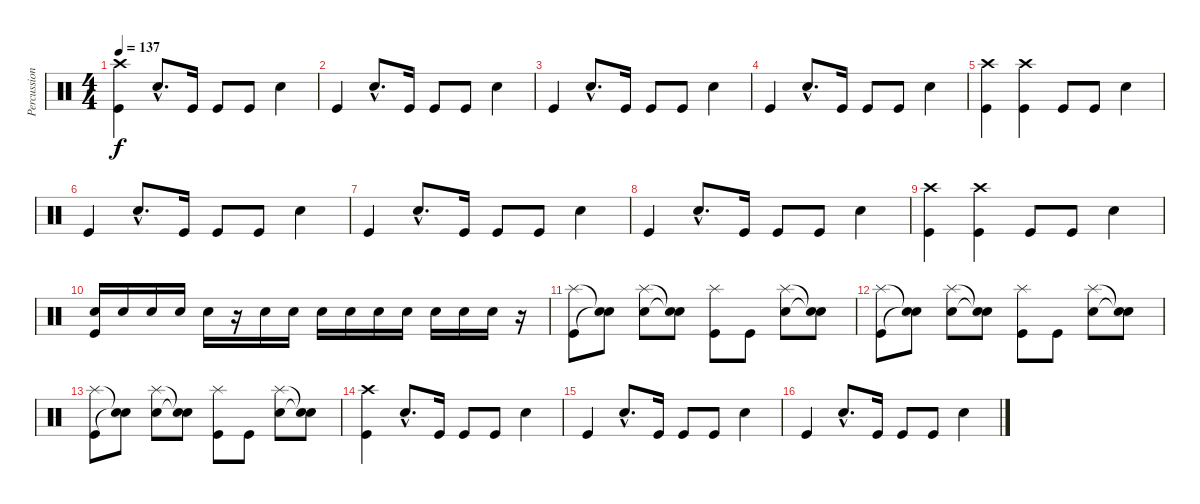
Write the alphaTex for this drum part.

\track ("Percussion" "Percussion") {instrument percussion}
\staff {score}
\articulation defaults
\ts (4 4)
\tempo 137
\clef neutral
\ks c
("Crash high (hit)" "Kick (hit)").4{dy f} "Snare (hit) 2"{hac}.8{d} "Kick (hit)".16 "Kick (hit)".8 "Kick (hit)".8 "Snare (hit) 2".4 |
"Kick (hit)".4 "Snare (hit) 2"{hac}.8{d} "Kick (hit)".16 "Kick (hit)".8 "Kick (hit)".8 "Snare (hit) 2".4 |
"Kick (hit)".4 "Snare (hit) 2"{hac}.8{d} "Kick (hit)".16 "Kick (hit)".8 "Kick (hit)".8 "Snare (hit) 2".4 |
"Kick (hit)".4 "Snare (hit) 2"{hac}.8{d} "Kick (hit)".16 "Kick (hit)".8 "Kick (hit)".8 "Snare (hit) 2".4 |
("Crash high (hit)" "Kick (hit)").4 ("Crash high (hit)" "Kick (hit)").4 "Kick (hit)".8 "Kick (hit)".8 "Snare (hit) 2".4 |
"Kick (hit)".4 "Snare (hit) 2"{hac}.8{d} "Kick (hit)".16 "Kick (hit)".8 "Kick (hit)".8 "Snare (hit) 2".4 |
"Kick (hit)".4 "Snare (hit) 2"{hac}.8{d} "Kick (hit)".16 "Kick (hit)".8 "Kick (hit)".8 "Snare (hit) 2".4 |
"Kick (hit)".4 "Snare (hit) 2"{hac}.8{d} "Kick (hit)".16 "Kick (hit)".8 "Kick (hit)".8 "Snare (hit) 2".4 |
("Crash high (hit)" "Kick (hit)").4 ("Crash high (hit)" "Kick (hit)").4 "Kick (hit)".8 "Kick (hit)".8 "Snare (hit) 2".4 |
("Snare (hit) 2" "Kick (hit)").16 "Snare (hit) 2".16 "Snare (hit) 2".16 "Snare (hit) 2".16 "Snare (hit) 2".16 r.16 "Snare (hit) 2".16 "Snare (hit) 2".16 "Snare (hit) 2".16 "Snare (hit) 2".16 "Snare (hit) 2".16 "Snare (hit) 2".16 "Snare (hit) 2".16 "Snare (hit) 2".16 "Snare (hit) 2".16 r.16 |
("Splash (hit)" "Kick (hit)").8 ("Snare (hit)"{t} "Snare (hit)"{t}).8 ("Splash (hit)" "Snare (hit) 2").8 ("Snare (hit)"{t} "Snare (hit)"{t}).8 ("Splash (hit)" "Kick (hit)").8 "Kick (hit)".8 ("Splash (hit)" "Snare (hit) 2").8 ("Snare (hit)"{t} "Snare (hit)"{t}).8 |
("Splash (hit)" "Kick (hit)").8 ("Snare (hit)"{t} "Snare (hit)"{t}).8 ("Splash (hit)" "Snare (hit) 2").8 ("Snare (hit)"{t} "Snare (hit)"{t}).8 ("Splash (hit)" "Kick (hit)").8 "Kick (hit)".8 ("Splash (hit)" "Snare (hit) 2").8 ("Snare (hit)"{t} "Snare (hit)"{t}).8 |
("Splash (hit)" "Kick (hit)").8 ("Snare (hit)"{t} "Snare (hit)"{t}).8 ("Splash (hit)" "Snare (hit) 2").8 ("Snare (hit)"{t} "Snare (hit)"{t}).8 ("Splash (hit)" "Kick (hit)").8 "Kick (hit)".8 ("Splash (hit)" "Snare (hit) 2").8 ("Snare (hit)"{t} "Snare (hit)"{t}).8 |
("Crash high (hit)" "Kick (hit)").4 "Snare (hit) 2"{hac}.8{d} "Kick (hit)".16 "Kick (hit)".8 "Kick (hit)".8 "Snare (hit) 2".4 |
"Kick (hit)".4 "Snare (hit) 2"{hac}.8{d} "Kick (hit)".16 "Kick (hit)".8 "Kick (hit)".8 "Snare (hit) 2".4 |
"Kick (hit)".4 "Snare (hit) 2"{hac}.8{d} "Kick (hit)".16 "Kick (hit)".8 "Kick (hit)".8 "Snare (hit) 2".4
